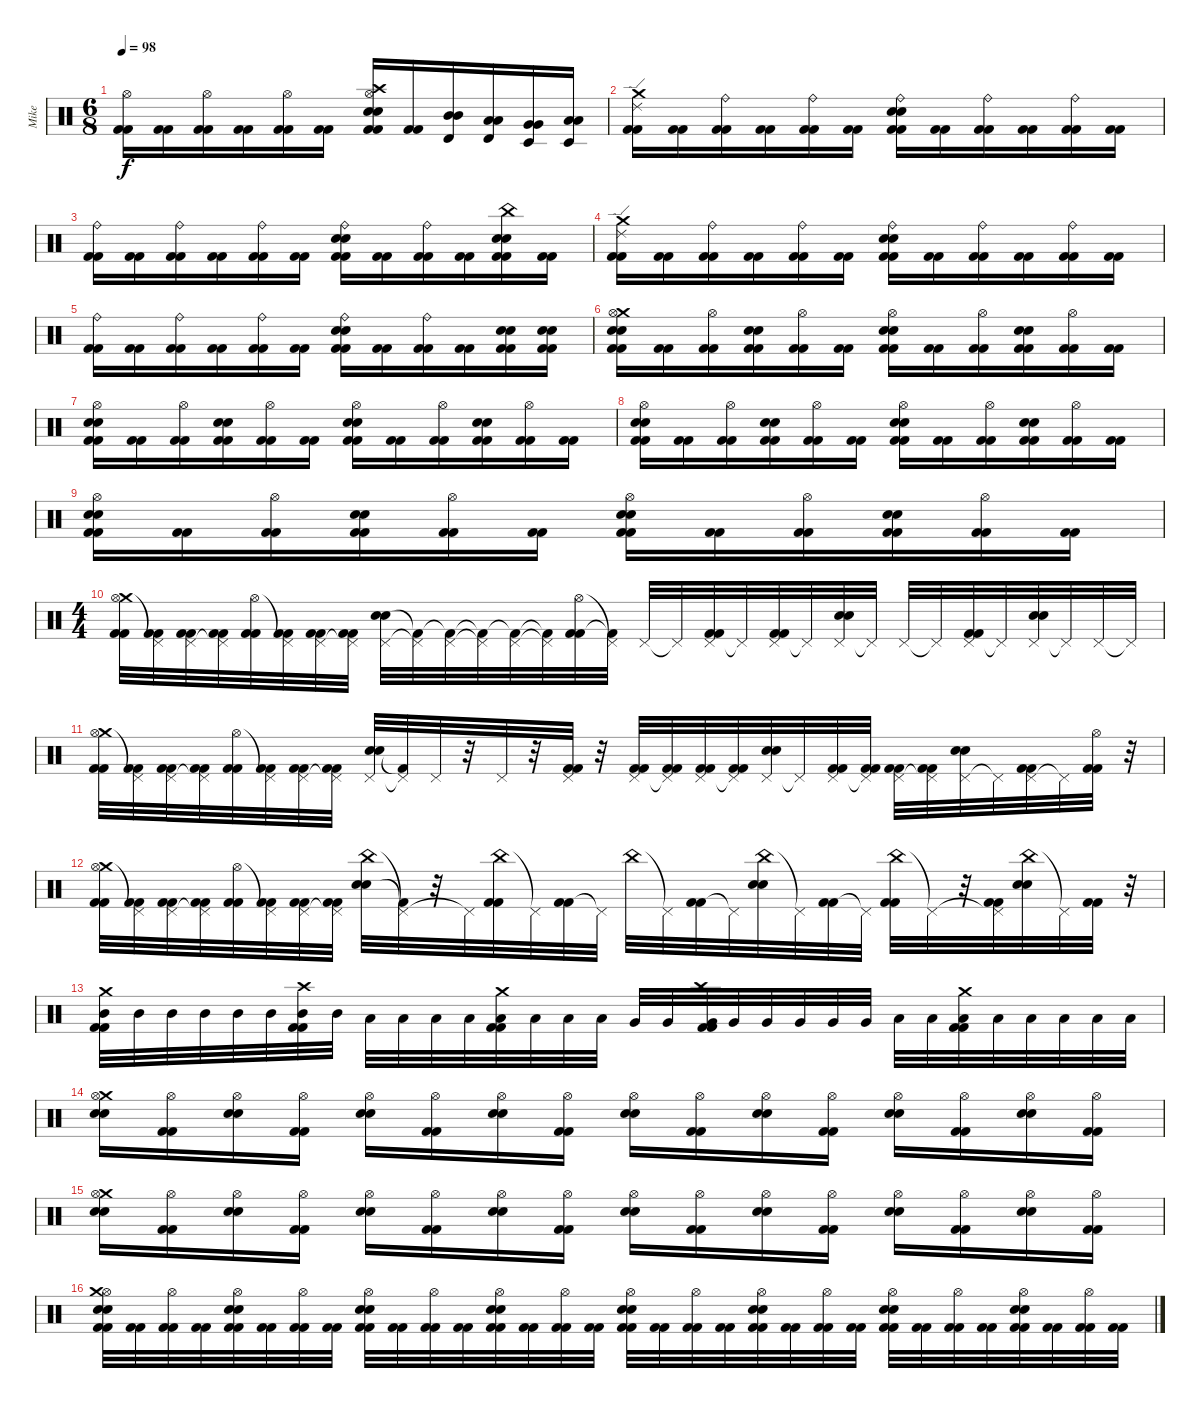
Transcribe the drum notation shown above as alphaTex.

\track ("Mike" "Mike") {instrument percussion}
\staff {score}
\articulation defaults
\ts (6 8)
\tempo 98
\clef neutral
\ks c
("Hi-Hat (open)" "Kick (hit) 2" "Kick (hit) 2").16{dy f} ("Kick (hit) 2" "Kick (hit) 2").16 ("Hi-Hat (open)" "Kick (hit) 2" "Kick (hit) 2").16 ("Kick (hit) 2" "Kick (hit) 2").16 ("Hi-Hat (open)" "Kick (hit) 2" "Kick (hit) 2").16 ("Kick (hit) 2" "Kick (hit) 2").16 ("Crash high (hit)" "Hi-Hat (open)" "Electric Snare (hit)" "Electric Snare (hit)" "Kick (hit) 2" "Kick (hit) 2").16 ("Kick (hit) 2" "Kick (hit) 2").16 ("Timbale high (hit)" "Mid Tom (hit)" "Mid Tom (hit)").16 ("Timbale high (hit)" "Low Tom (hit)" "Low Tom (hit)").16 ("Timbale low (hit)" "Very Low Tom (hit)" "Very Low Tom (hit)").16 ("Timbale low (hit)" "Low Floor Tom (hit)" "Low Floor Tom (hit)").16 |
("Crash medium (hit)" "Ride (edge) 2" "Kick (hit) 2" "Kick (hit) 2").16 ("Kick (hit) 2" "Kick (hit) 2").16 ("Ride (bell)" "Kick (hit) 2" "Kick (hit) 2").16 ("Kick (hit) 2" "Kick (hit) 2").16 ("Ride (bell)" "Kick (hit) 2" "Kick (hit) 2").16 ("Kick (hit) 2" "Kick (hit) 2").16 ("Ride (bell)" "Electric Snare (hit)" "Electric Snare (hit)" "Kick (hit) 2" "Kick (hit) 2").16 ("Kick (hit) 2" "Kick (hit) 2").16 ("Ride (bell)" "Kick (hit) 2" "Kick (hit) 2").16 ("Kick (hit) 2" "Kick (hit) 2").16 ("Ride (bell)" "Kick (hit) 2" "Kick (hit) 2").16 ("Kick (hit) 2" "Kick (hit) 2").16 |
("Ride (bell)" "Kick (hit) 2" "Kick (hit) 2").16 ("Kick (hit) 2" "Kick (hit) 2").16 ("Ride (bell)" "Kick (hit) 2" "Kick (hit) 2").16 ("Kick (hit) 2" "Kick (hit) 2").16 ("Ride (bell)" "Kick (hit) 2" "Kick (hit) 2").16 ("Kick (hit) 2" "Kick (hit) 2").16 ("Ride (bell)" "Electric Snare (hit)" "Electric Snare (hit)" "Kick (hit) 2" "Kick (hit) 2").16 ("Kick (hit) 2" "Kick (hit) 2").16 ("Ride (bell)" "Kick (hit) 2" "Kick (hit) 2").16 ("Kick (hit) 2" "Kick (hit) 2").16 ("China (hit)" "Electric Snare (hit)" "Electric Snare (hit)" "Kick (hit) 2" "Kick (hit) 2").16 ("Kick (hit) 2" "Kick (hit) 2").16 |
("Crash medium (hit)" "Ride (edge) 2" "Kick (hit) 2" "Kick (hit) 2").16 ("Kick (hit) 2" "Kick (hit) 2").16 ("Ride (bell)" "Kick (hit) 2" "Kick (hit) 2").16 ("Kick (hit) 2" "Kick (hit) 2").16 ("Ride (bell)" "Kick (hit) 2" "Kick (hit) 2").16 ("Kick (hit) 2" "Kick (hit) 2").16 ("Ride (bell)" "Electric Snare (hit)" "Electric Snare (hit)" "Kick (hit) 2" "Kick (hit) 2").16 ("Kick (hit) 2" "Kick (hit) 2").16 ("Ride (bell)" "Kick (hit) 2" "Kick (hit) 2").16 ("Kick (hit) 2" "Kick (hit) 2").16 ("Ride (bell)" "Kick (hit) 2" "Kick (hit) 2").16 ("Kick (hit) 2" "Kick (hit) 2").16 |
("Ride (bell)" "Kick (hit) 2" "Kick (hit) 2").16 ("Kick (hit) 2" "Kick (hit) 2").16 ("Ride (bell)" "Kick (hit) 2" "Kick (hit) 2").16 ("Kick (hit) 2" "Kick (hit) 2").16 ("Ride (bell)" "Kick (hit) 2" "Kick (hit) 2").16 ("Kick (hit) 2" "Kick (hit) 2").16 ("Ride (bell)" "Electric Snare (hit)" "Electric Snare (hit)" "Kick (hit) 2" "Kick (hit) 2").16 ("Kick (hit) 2" "Kick (hit) 2").16 ("Ride (bell)" "Kick (hit) 2" "Kick (hit) 2").16 ("Kick (hit) 2" "Kick (hit) 2").16 ("Electric Snare (hit)" "Electric Snare (hit)" "Kick (hit) 2" "Kick (hit) 2").16 ("Electric Snare (hit)" "Electric Snare (hit)" "Kick (hit) 2" "Kick (hit) 2").16 |
("Crash medium (hit)" "Hi-Hat (open)" "Electric Snare (hit)" "Electric Snare (hit)" "Kick (hit) 2" "Kick (hit) 2").16 ("Kick (hit) 2" "Kick (hit) 2").16 ("Hi-Hat (open)" "Kick (hit) 2" "Kick (hit) 2").16 ("Electric Snare (hit)" "Electric Snare (hit)" "Kick (hit) 2" "Kick (hit) 2").16 ("Hi-Hat (open)" "Kick (hit) 2" "Kick (hit) 2").16 ("Kick (hit) 2" "Kick (hit) 2").16 ("Hi-Hat (open)" "Electric Snare (hit)" "Electric Snare (hit)" "Kick (hit) 2" "Kick (hit) 2").16 ("Kick (hit) 2" "Kick (hit) 2").16 ("Hi-Hat (open)" "Kick (hit) 2" "Kick (hit) 2").16 ("Electric Snare (hit)" "Electric Snare (hit)" "Kick (hit) 2" "Kick (hit) 2").16 ("Hi-Hat (open)" "Kick (hit) 2" "Kick (hit) 2").16 ("Kick (hit) 2" "Kick (hit) 2").16 |
("Hi-Hat (open)" "Electric Snare (hit)" "Electric Snare (hit)" "Kick (hit) 2" "Kick (hit) 2").16 ("Kick (hit) 2" "Kick (hit) 2").16 ("Hi-Hat (open)" "Kick (hit) 2" "Kick (hit) 2").16 ("Electric Snare (hit)" "Electric Snare (hit)" "Kick (hit) 2" "Kick (hit) 2").16 ("Hi-Hat (open)" "Kick (hit) 2" "Kick (hit) 2").16 ("Kick (hit) 2" "Kick (hit) 2").16 ("Hi-Hat (open)" "Electric Snare (hit)" "Electric Snare (hit)" "Kick (hit) 2" "Kick (hit) 2").16 ("Kick (hit) 2" "Kick (hit) 2").16 ("Hi-Hat (open)" "Kick (hit) 2" "Kick (hit) 2").16 ("Electric Snare (hit)" "Electric Snare (hit)" "Kick (hit) 2" "Kick (hit) 2").16 ("Hi-Hat (open)" "Kick (hit) 2" "Kick (hit) 2").16 ("Kick (hit) 2" "Kick (hit) 2").16 |
("Hi-Hat (open)" "Electric Snare (hit)" "Electric Snare (hit)" "Kick (hit) 2" "Kick (hit) 2").16 ("Kick (hit) 2" "Kick (hit) 2").16 ("Hi-Hat (open)" "Kick (hit) 2" "Kick (hit) 2").16 ("Electric Snare (hit)" "Electric Snare (hit)" "Kick (hit) 2" "Kick (hit) 2").16 ("Hi-Hat (open)" "Kick (hit) 2" "Kick (hit) 2").16 ("Kick (hit) 2" "Kick (hit) 2").16 ("Hi-Hat (open)" "Electric Snare (hit)" "Electric Snare (hit)" "Kick (hit) 2" "Kick (hit) 2").16 ("Kick (hit) 2" "Kick (hit) 2").16 ("Hi-Hat (open)" "Kick (hit) 2" "Kick (hit) 2").16 ("Electric Snare (hit)" "Electric Snare (hit)" "Kick (hit) 2" "Kick (hit) 2").16 ("Hi-Hat (open)" "Kick (hit) 2" "Kick (hit) 2").16 ("Kick (hit) 2" "Kick (hit) 2").16 |
("Hi-Hat (open)" "Electric Snare (hit)" "Electric Snare (hit)" "Kick (hit) 2" "Kick (hit) 2").16 ("Kick (hit) 2" "Kick (hit) 2").16 ("Hi-Hat (open)" "Kick (hit) 2" "Kick (hit) 2").16 ("Electric Snare (hit)" "Electric Snare (hit)" "Kick (hit) 2" "Kick (hit) 2").16 ("Hi-Hat (open)" "Kick (hit) 2" "Kick (hit) 2").16 ("Kick (hit) 2" "Kick (hit) 2").16 ("Hi-Hat (open)" "Electric Snare (hit)" "Electric Snare (hit)" "Kick (hit) 2" "Kick (hit) 2").16 ("Kick (hit) 2" "Kick (hit) 2").16 ("Hi-Hat (open)" "Kick (hit) 2" "Kick (hit) 2").16 ("Electric Snare (hit)" "Electric Snare (hit)" "Kick (hit) 2" "Kick (hit) 2").16 ("Hi-Hat (open)" "Kick (hit) 2" "Kick (hit) 2").16 ("Kick (hit) 2" "Kick (hit) 2").16 |
\ts (4 4)
("Crash medium (hit)" "Hi-Hat (open)" "Kick (hit) 2" "Kick (hit) 2").32 ("Pedal Hi-Hat (hit)"{t} "Kick (hit) 2" "Kick (hit) 2").32 ("Pedal Hi-Hat (hit)" "Kick (hit) 2" "Kick (hit) 2").32 ("Pedal Hi-Hat (hit)"{t} "Kick (hit) 2" "Kick (hit) 2").32 ("Hi-Hat (open)" "Kick (hit) 2" "Kick (hit) 2").32 ("Pedal Hi-Hat (hit)"{t} "Kick (hit) 2" "Kick (hit) 2").32 ("Pedal Hi-Hat (hit)" "Kick (hit) 2" "Kick (hit) 2").32 ("Pedal Hi-Hat (hit)"{t} "Kick (hit) 2" "Kick (hit) 2").32 ("Pedal Hi-Hat (hit)" "Electric Snare (hit)" "Electric Snare (hit)").32 ("Pedal Hi-Hat (hit)"{t} "Kick (hit) 2"{t}).32 ("Pedal Hi-Hat (hit)" "Kick (hit) 2"{t}).32 ("Pedal Hi-Hat (hit)"{t} "Kick (hit) 2"{t}).32 ("Pedal Hi-Hat (hit)" "Kick (hit) 2"{t}).32 ("Pedal Hi-Hat (hit)"{t} "Kick (hit) 2"{t}).32 ("Hi-Hat (open)" "Kick (hit) 2" "Kick (hit) 2").32 ("Pedal Hi-Hat (hit)"{t} "Kick (hit) 2"{t}).32 "Pedal Hi-Hat (hit)".32 "Pedal Hi-Hat (hit)"{t}.32 ("Pedal Hi-Hat (hit)" "Kick (hit) 2" "Kick (hit) 2").32 "Pedal Hi-Hat (hit)"{t}.32 ("Pedal Hi-Hat (hit)" "Kick (hit) 2" "Kick (hit) 2").32 "Pedal Hi-Hat (hit)"{t}.32 ("Pedal Hi-Hat (hit)" "Electric Snare (hit)" "Electric Snare (hit)").32 "Pedal Hi-Hat (hit)"{t}.32 "Pedal Hi-Hat (hit)".32 "Pedal Hi-Hat (hit)"{t}.32 ("Pedal Hi-Hat (hit)" "Kick (hit) 2" "Kick (hit) 2").32 "Pedal Hi-Hat (hit)"{t}.32 ("Pedal Hi-Hat (hit)" "Electric Snare (hit)" "Electric Snare (hit)").32 "Pedal Hi-Hat (hit)"{t}.32 "Pedal Hi-Hat (hit)".32 "Pedal Hi-Hat (hit)"{t}.32 |
("Crash medium (hit)" "Hi-Hat (open)" "Kick (hit) 2" "Kick (hit) 2").32 ("Pedal Hi-Hat (hit)"{t} "Kick (hit) 2" "Kick (hit) 2").32 ("Pedal Hi-Hat (hit)" "Kick (hit) 2" "Kick (hit) 2").32 ("Pedal Hi-Hat (hit)"{t} "Kick (hit) 2" "Kick (hit) 2").32 ("Hi-Hat (open)" "Kick (hit) 2" "Kick (hit) 2").32 ("Pedal Hi-Hat (hit)"{t} "Kick (hit) 2" "Kick (hit) 2").32 ("Pedal Hi-Hat (hit)" "Kick (hit) 2" "Kick (hit) 2").32 ("Pedal Hi-Hat (hit)"{t} "Kick (hit) 2" "Kick (hit) 2").32 ("Pedal Hi-Hat (hit)" "Electric Snare (hit)" "Electric Snare (hit)").32 ("Pedal Hi-Hat (hit)"{t} "Kick (hit) 2"{t}).32 "Pedal Hi-Hat (hit)".32 r.32 "Pedal Hi-Hat (hit)".32 r.32 ("Pedal Hi-Hat (hit)" "Kick (hit) 2" "Kick (hit) 2").32 r.32 ("Pedal Hi-Hat (hit)" "Kick (hit) 2" "Kick (hit) 2").32 ("Pedal Hi-Hat (hit)"{t} "Kick (hit) 2" "Kick (hit) 2").32 ("Pedal Hi-Hat (hit)" "Kick (hit) 2" "Kick (hit) 2").32 ("Pedal Hi-Hat (hit)"{t} "Kick (hit) 2" "Kick (hit) 2").32 ("Pedal Hi-Hat (hit)" "Electric Snare (hit)" "Electric Snare (hit)").32 "Pedal Hi-Hat (hit)"{t}.32 ("Pedal Hi-Hat (hit)" "Kick (hit) 2" "Kick (hit) 2").32 ("Pedal Hi-Hat (hit)"{t} "Kick (hit) 2" "Kick (hit) 2").32 ("Pedal Hi-Hat (hit)" "Kick (hit) 2" "Kick (hit) 2").32 ("Pedal Hi-Hat (hit)"{t} "Kick (hit) 2" "Kick (hit) 2").32 ("Pedal Hi-Hat (hit)" "Electric Snare (hit)" "Electric Snare (hit)").32 "Pedal Hi-Hat (hit)"{t}.32 ("Pedal Hi-Hat (hit)" "Kick (hit) 2" "Kick (hit) 2").32 "Pedal Hi-Hat (hit)"{t}.32 ("Hi-Hat (open)" "Kick (hit) 2" "Kick (hit) 2").32 r.32 |
("Crash medium (hit)" "Hi-Hat (open)" "Kick (hit) 2" "Kick (hit) 2").32 ("Pedal Hi-Hat (hit)"{t} "Kick (hit) 2" "Kick (hit) 2").32 ("Pedal Hi-Hat (hit)" "Kick (hit) 2" "Kick (hit) 2").32 ("Pedal Hi-Hat (hit)"{t} "Kick (hit) 2" "Kick (hit) 2").32 ("Hi-Hat (open)" "Kick (hit) 2" "Kick (hit) 2").32 ("Pedal Hi-Hat (hit)"{t} "Kick (hit) 2" "Kick (hit) 2").32 ("Pedal Hi-Hat (hit)" "Kick (hit) 2" "Kick (hit) 2").32 ("Pedal Hi-Hat (hit)"{t} "Kick (hit) 2" "Kick (hit) 2").32 ("China (hit)" "Electric Snare (hit)" "Electric Snare (hit)").32 ("Pedal Hi-Hat (hit)"{t} "Kick (hit) 2"{t}).32 r.32 "Pedal Hi-Hat (hit)"{t}.32 ("China (hit)" "Kick (hit) 2" "Kick (hit) 2").32 "Pedal Hi-Hat (hit)"{t}.32 ("Kick (hit) 2" "Kick (hit) 2").32 "Pedal Hi-Hat (hit)"{t}.32 "China (hit)".32 "Pedal Hi-Hat (hit)"{t}.32 ("Kick (hit) 2" "Kick (hit) 2").32 "Pedal Hi-Hat (hit)"{t}.32 ("China (hit)" "Electric Snare (hit)" "Electric Snare (hit)").32 "Pedal Hi-Hat (hit)"{t}.32 ("Kick (hit) 2" "Kick (hit) 2").32 "Pedal Hi-Hat (hit)"{t}.32 ("China (hit)" "Kick (hit) 2" "Kick (hit) 2").32 "Pedal Hi-Hat (hit)"{t}.32 r.32 ("Pedal Hi-Hat (hit)"{t} "Kick (hit) 2" "Kick (hit) 2").32 ("China (hit)" "Electric Snare (hit)" "Electric Snare (hit)").32 "Pedal Hi-Hat (hit)"{t}.32 ("Kick (hit) 2" "Kick (hit) 2").32 r.32 |
("Crash medium (hit)" "Mid Tom (hit)" "Kick (hit) 2" "Kick (hit) 2").32 "Mid Tom (hit)".32 "Mid Tom (hit)".32 "Mid Tom (hit)".32 "Mid Tom (hit)".32 "Mid Tom (hit)".32 ("Crash high (hit)" "Mid Tom (hit)" "Kick (hit) 2" "Kick (hit) 2").32 "Mid Tom (hit)".32 "Low Tom (hit)".32 "Low Tom (hit)".32 "Low Tom (hit)".32 "Low Tom (hit)".32 ("Crash medium (hit)" "Low Tom (hit)" "Kick (hit) 2" "Kick (hit) 2").32 "Low Tom (hit)".32 "Low Tom (hit)".32 "Low Tom (hit)".32 "Very Low Tom (hit)".32 "Very Low Tom (hit)".32 ("Crash high (hit)" "Very Low Tom (hit)" "Kick (hit) 2" "Kick (hit) 2").32 "Very Low Tom (hit)".32 "Very Low Tom (hit)".32 "Very Low Tom (hit)".32 "Very Low Tom (hit)".32 "Very Low Tom (hit)".32 "Low Floor Tom (hit)".32 "Low Floor Tom (hit)".32 ("Crash medium (hit)" "Low Floor Tom (hit)" "Kick (hit) 2" "Kick (hit) 2").32 "Low Floor Tom (hit)".32 "Low Floor Tom (hit)".32 "Low Floor Tom (hit)".32 "Low Floor Tom (hit)".32 "Low Floor Tom (hit)".32 |
("Crash medium (hit)" "Hi-Hat (open)" "Electric Snare (hit)" "Electric Snare (hit)").16 ("Hi-Hat (open)" "Kick (hit) 2" "Kick (hit) 2").16 ("Hi-Hat (open)" "Electric Snare (hit)" "Electric Snare (hit)").16 ("Hi-Hat (open)" "Kick (hit) 2" "Kick (hit) 2").16 ("Hi-Hat (open)" "Electric Snare (hit)" "Electric Snare (hit)").16 ("Hi-Hat (open)" "Kick (hit) 2" "Kick (hit) 2").16 ("Hi-Hat (open)" "Electric Snare (hit)" "Electric Snare (hit)").16 ("Hi-Hat (open)" "Kick (hit) 2" "Kick (hit) 2").16 ("Hi-Hat (open)" "Electric Snare (hit)" "Electric Snare (hit)").16 ("Hi-Hat (open)" "Kick (hit) 2" "Kick (hit) 2").16 ("Hi-Hat (open)" "Electric Snare (hit)" "Electric Snare (hit)").16 ("Hi-Hat (open)" "Kick (hit) 2" "Kick (hit) 2").16 ("Hi-Hat (open)" "Electric Snare (hit)" "Electric Snare (hit)").16 ("Hi-Hat (open)" "Kick (hit) 2" "Kick (hit) 2").16 ("Hi-Hat (open)" "Electric Snare (hit)" "Electric Snare (hit)").16 ("Hi-Hat (open)" "Kick (hit) 2" "Kick (hit) 2").16 |
("Crash medium (hit)" "Hi-Hat (open)" "Electric Snare (hit)" "Electric Snare (hit)").16 ("Hi-Hat (open)" "Kick (hit) 2" "Kick (hit) 2").16 ("Hi-Hat (open)" "Electric Snare (hit)" "Electric Snare (hit)").16 ("Hi-Hat (open)" "Kick (hit) 2" "Kick (hit) 2").16 ("Hi-Hat (open)" "Electric Snare (hit)" "Electric Snare (hit)").16 ("Hi-Hat (open)" "Kick (hit) 2" "Kick (hit) 2").16 ("Hi-Hat (open)" "Electric Snare (hit)" "Electric Snare (hit)").16 ("Hi-Hat (open)" "Kick (hit) 2" "Kick (hit) 2").16 ("Hi-Hat (open)" "Electric Snare (hit)" "Electric Snare (hit)").16 ("Hi-Hat (open)" "Kick (hit) 2" "Kick (hit) 2").16 ("Hi-Hat (open)" "Electric Snare (hit)" "Electric Snare (hit)").16 ("Hi-Hat (open)" "Kick (hit) 2" "Kick (hit) 2").16 ("Hi-Hat (open)" "Electric Snare (hit)" "Electric Snare (hit)").16 ("Hi-Hat (open)" "Kick (hit) 2" "Kick (hit) 2").16 ("Hi-Hat (open)" "Electric Snare (hit)" "Electric Snare (hit)").16 ("Hi-Hat (open)" "Kick (hit) 2" "Kick (hit) 2").16 |
("Hi-Hat (open)" "Electric Snare (hit)" "Electric Snare (hit)" "Crash medium (hit)" "Kick (hit) 2" "Kick (hit) 2").32 ("Kick (hit) 2" "Kick (hit) 2").32 ("Hi-Hat (open)" "Kick (hit) 2" "Kick (hit) 2").32 ("Kick (hit) 2" "Kick (hit) 2").32 ("Hi-Hat (open)" "Electric Snare (hit)" "Electric Snare (hit)" "Kick (hit) 2" "Kick (hit) 2").32 ("Kick (hit) 2" "Kick (hit) 2").32 ("Hi-Hat (open)" "Kick (hit) 2" "Kick (hit) 2").32 ("Kick (hit) 2" "Kick (hit) 2").32 ("Hi-Hat (open)" "Electric Snare (hit)" "Electric Snare (hit)" "Kick (hit) 2" "Kick (hit) 2").32 ("Kick (hit) 2" "Kick (hit) 2").32 ("Hi-Hat (open)" "Kick (hit) 2" "Kick (hit) 2").32 ("Kick (hit) 2" "Kick (hit) 2").32 ("Hi-Hat (open)" "Electric Snare (hit)" "Electric Snare (hit)" "Kick (hit) 2" "Kick (hit) 2").32 ("Kick (hit) 2" "Kick (hit) 2").32 ("Hi-Hat (open)" "Kick (hit) 2" "Kick (hit) 2").32 ("Kick (hit) 2" "Kick (hit) 2").32 ("Hi-Hat (open)" "Electric Snare (hit)" "Electric Snare (hit)" "Kick (hit) 2" "Kick (hit) 2").32 ("Kick (hit) 2" "Kick (hit) 2").32 ("Hi-Hat (open)" "Kick (hit) 2" "Kick (hit) 2").32 ("Kick (hit) 2" "Kick (hit) 2").32 ("Hi-Hat (open)" "Electric Snare (hit)" "Electric Snare (hit)" "Kick (hit) 2" "Kick (hit) 2").32 ("Kick (hit) 2" "Kick (hit) 2").32 ("Hi-Hat (open)" "Kick (hit) 2" "Kick (hit) 2").32 ("Kick (hit) 2" "Kick (hit) 2").32 ("Hi-Hat (open)" "Electric Snare (hit)" "Electric Snare (hit)" "Kick (hit) 2" "Kick (hit) 2").32 ("Kick (hit) 2" "Kick (hit) 2").32 ("Hi-Hat (open)" "Kick (hit) 2" "Kick (hit) 2").32 ("Kick (hit) 2" "Kick (hit) 2").32 ("Hi-Hat (open)" "Electric Snare (hit)" "Electric Snare (hit)" "Kick (hit) 2" "Kick (hit) 2").32 ("Kick (hit) 2" "Kick (hit) 2").32 ("Hi-Hat (open)" "Kick (hit) 2" "Kick (hit) 2").32 ("Kick (hit) 2" "Kick (hit) 2").32
